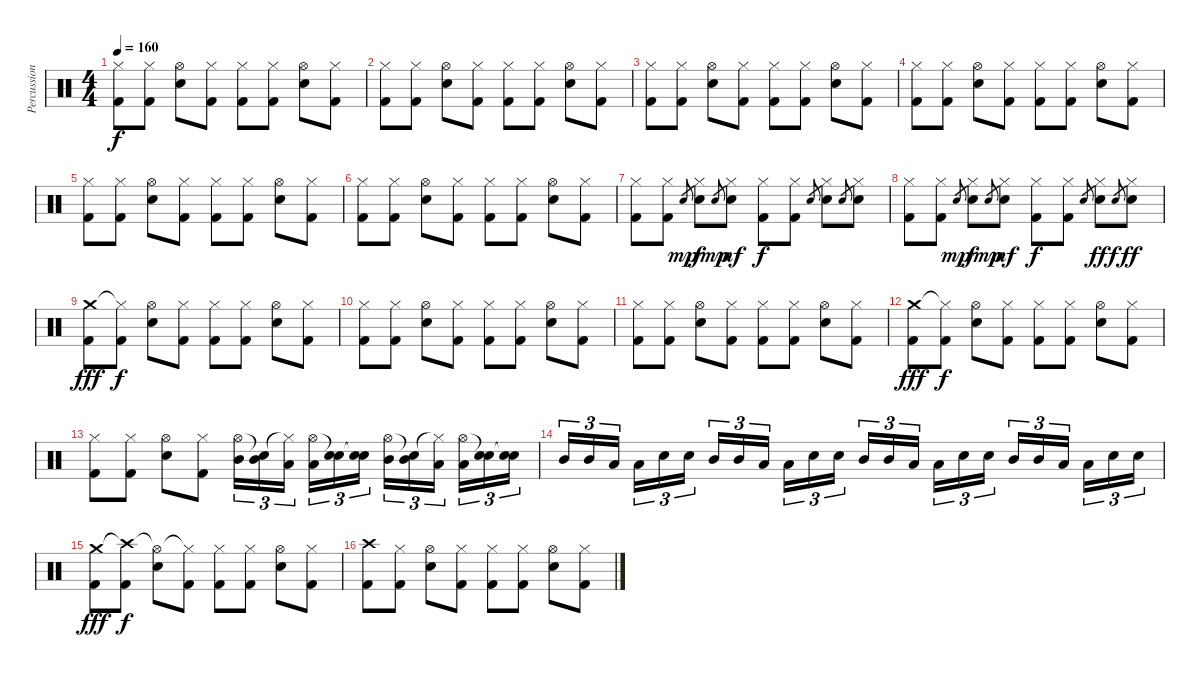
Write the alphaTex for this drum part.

\track ("Percussion" "Percussion") {instrument percussion}
\staff {score}
\articulation defaults
\ts (4 4)
\tempo 160
\clef neutral
\ks c
("Hi-Hat (closed)" "Kick (hit) 2").8{dy f} ("Hi-Hat (closed)" "Kick (hit) 2").8 ("Hi-Hat (open)" "Snare (hit) 2").8 ("Hi-Hat (closed)" "Kick (hit) 2").8 ("Hi-Hat (closed)" "Kick (hit) 2").8 ("Hi-Hat (closed)" "Kick (hit) 2").8 ("Hi-Hat (open)" "Snare (hit) 2").8 ("Hi-Hat (closed)" "Kick (hit) 2").8 |
("Hi-Hat (closed)" "Kick (hit) 2").8 ("Hi-Hat (closed)" "Kick (hit) 2").8 ("Hi-Hat (open)" "Snare (hit) 2").8 ("Hi-Hat (closed)" "Kick (hit) 2").8 ("Hi-Hat (closed)" "Kick (hit) 2").8 ("Hi-Hat (closed)" "Kick (hit) 2").8 ("Hi-Hat (open)" "Snare (hit) 2").8 ("Hi-Hat (closed)" "Kick (hit) 2").8 |
("Hi-Hat (closed)" "Kick (hit) 2").8 ("Hi-Hat (closed)" "Kick (hit) 2").8 ("Hi-Hat (open)" "Snare (hit) 2").8 ("Hi-Hat (closed)" "Kick (hit) 2").8 ("Hi-Hat (closed)" "Kick (hit) 2").8 ("Hi-Hat (closed)" "Kick (hit) 2").8 ("Hi-Hat (open)" "Snare (hit) 2").8 ("Hi-Hat (closed)" "Kick (hit) 2").8 |
("Hi-Hat (closed)" "Kick (hit) 2").8 ("Hi-Hat (closed)" "Kick (hit) 2").8 ("Hi-Hat (open)" "Snare (hit) 2").8 ("Hi-Hat (closed)" "Kick (hit) 2").8 ("Hi-Hat (closed)" "Kick (hit) 2").8 ("Hi-Hat (closed)" "Kick (hit) 2").8 ("Hi-Hat (open)" "Snare (hit) 2").8 ("Hi-Hat (closed)" "Kick (hit) 2").8 |
("Hi-Hat (closed)" "Kick (hit) 2").8 ("Hi-Hat (closed)" "Kick (hit) 2").8 ("Hi-Hat (open)" "Snare (hit) 2").8 ("Hi-Hat (closed)" "Kick (hit) 2").8 ("Hi-Hat (closed)" "Kick (hit) 2").8 ("Hi-Hat (closed)" "Kick (hit) 2").8 ("Hi-Hat (open)" "Snare (hit) 2").8 ("Hi-Hat (closed)" "Kick (hit) 2").8 |
("Hi-Hat (closed)" "Kick (hit) 2").8 ("Hi-Hat (closed)" "Kick (hit) 2").8 ("Hi-Hat (open)" "Snare (hit) 2").8 ("Hi-Hat (closed)" "Kick (hit) 2").8 ("Hi-Hat (closed)" "Kick (hit) 2").8 ("Hi-Hat (closed)" "Kick (hit) 2").8 ("Hi-Hat (open)" "Snare (hit) 2").8 ("Hi-Hat (closed)" "Kick (hit) 2").8 |
("Hi-Hat (closed)" "Kick (hit) 2").8 ("Hi-Hat (closed)" "Kick (hit) 2").8 "Snare (hit) 2".8{gr dy mp} ("Hi-Hat (closed)" "Snare (hit) 2").8{dy f} "Snare (hit) 2".8{gr dy mp} ("Hi-Hat (closed)" "Snare (hit) 2").8{dy mf} ("Hi-Hat (closed)" "Kick (hit) 2").8{dy f} ("Hi-Hat (closed)" "Kick (hit) 2").8 "Snare (hit) 2".8{gr} ("Hi-Hat (closed)" "Snare (hit) 2").8 "Snare (hit) 2".8{gr} ("Hi-Hat (closed)" "Snare (hit) 2").8 |
("Hi-Hat (closed)" "Kick (hit) 2").8 ("Hi-Hat (closed)" "Kick (hit) 2").8 "Snare (hit) 2".8{gr dy mp} ("Hi-Hat (closed)" "Snare (hit) 2").8{dy f} "Snare (hit) 2".8{gr dy mp} ("Hi-Hat (closed)" "Snare (hit) 2").8{dy mf} ("Hi-Hat (closed)" "Kick (hit) 2").8{dy f} ("Hi-Hat (closed)" "Kick (hit) 2").8 "Snare (hit) 2".8{gr} ("Hi-Hat (closed)" "Snare (hit) 2").8{dy ff} "Snare (hit) 2".8{gr dy f} ("Hi-Hat (closed)" "Snare (hit) 2").8{dy ff} |
("Crash medium (hit)" "Kick (hit) 2").8{dy fff} ("Hi-Hat (closed)"{t} "Kick (hit) 2").8{dy f} ("Hi-Hat (open)" "Snare (hit) 2").8 ("Hi-Hat (closed)" "Kick (hit) 2").8 ("Hi-Hat (closed)" "Kick (hit) 2").8 ("Hi-Hat (closed)" "Kick (hit) 2").8 ("Hi-Hat (open)" "Snare (hit) 2").8 ("Hi-Hat (closed)" "Kick (hit) 2").8 |
("Hi-Hat (closed)" "Kick (hit) 2").8 ("Hi-Hat (closed)" "Kick (hit) 2").8 ("Hi-Hat (open)" "Snare (hit) 2").8 ("Hi-Hat (closed)" "Kick (hit) 2").8 ("Hi-Hat (closed)" "Kick (hit) 2").8 ("Hi-Hat (closed)" "Kick (hit) 2").8 ("Hi-Hat (open)" "Snare (hit) 2").8 ("Hi-Hat (closed)" "Kick (hit) 2").8 |
("Hi-Hat (closed)" "Kick (hit) 2").8 ("Hi-Hat (closed)" "Kick (hit) 2").8 ("Hi-Hat (open)" "Snare (hit) 2").8 ("Hi-Hat (closed)" "Kick (hit) 2").8 ("Hi-Hat (closed)" "Kick (hit) 2").8 ("Hi-Hat (closed)" "Kick (hit) 2").8 ("Hi-Hat (open)" "Snare (hit) 2").8 ("Hi-Hat (closed)" "Kick (hit) 2").8 |
("Crash medium (hit)" "Kick (hit) 2").8{dy fff} ("Hi-Hat (closed)"{t} "Kick (hit) 2").8{dy f} ("Hi-Hat (open)" "Snare (hit) 2").8 ("Hi-Hat (closed)" "Kick (hit) 2").8 ("Hi-Hat (closed)" "Kick (hit) 2").8 ("Hi-Hat (closed)" "Kick (hit) 2").8 ("Hi-Hat (open)" "Snare (hit) 2").8 ("Hi-Hat (closed)" "Kick (hit) 2").8 |
("Hi-Hat (closed)" "Kick (hit) 2").8 ("Hi-Hat (closed)" "Kick (hit) 2").8 ("Hi-Hat (open)" "Snare (hit) 2").8 ("Hi-Hat (closed)" "Kick (hit) 2").8 ("Hi-Hat (open)" "Mid Tom (hit)").16{tu (3 2)} ("Snare (hit)"{t} "Mid Tom (hit)").16{tu (3 2)} ("Hi-Hat (closed)"{t} "Low Tom (hit)").16{tu (3 2) beam splitsecondary} ("Hi-Hat (open)" "Low Tom (hit)").16{tu (3 2)} ("Snare (hit)"{t} "Snare (hit) 2").16{tu (3 2)} ("Snare (hit)"{t} "Snare (hit) 2").16{tu (3 2)} ("Hi-Hat (open)" "Mid Tom (hit)").16{tu (3 2)} ("Snare (hit)"{t} "Mid Tom (hit)").16{tu (3 2)} ("Hi-Hat (closed)"{t} "Low Tom (hit)").16{tu (3 2) beam splitsecondary} ("Hi-Hat (open)" "Low Tom (hit)").16{tu (3 2)} ("Snare (hit)"{t} "Snare (hit) 2").16{tu (3 2)} ("Snare (hit)"{t} "Snare (hit) 2").16{tu (3 2)} |
"Mid Tom (hit)".16{tu (3 2)} "Mid Tom (hit)".16{tu (3 2)} "Low Tom (hit)".16{tu (3 2) beam splitsecondary} "Low Tom (hit)".16{tu (3 2)} "Snare (hit) 2".16{tu (3 2)} "Snare (hit) 2".16{tu (3 2)} "Mid Tom (hit)".16{tu (3 2)} "Mid Tom (hit)".16{tu (3 2)} "Low Tom (hit)".16{tu (3 2) beam splitsecondary} "Low Tom (hit)".16{tu (3 2)} "Snare (hit) 2".16{tu (3 2)} "Snare (hit) 2".16{tu (3 2)} "Mid Tom (hit)".16{tu (3 2)} "Mid Tom (hit)".16{tu (3 2)} "Low Tom (hit)".16{tu (3 2) beam splitsecondary} "Low Tom (hit)".16{tu (3 2)} "Snare (hit) 2".16{tu (3 2)} "Snare (hit) 2".16{tu (3 2)} "Mid Tom (hit)".16{tu (3 2)} "Mid Tom (hit)".16{tu (3 2)} "Low Tom (hit)".16{tu (3 2) beam splitsecondary} "Low Tom (hit)".16{tu (3 2)} "Snare (hit) 2".16{tu (3 2)} "Snare (hit) 2".16{tu (3 2)} |
("Crash medium (hit)" "Kick (hit) 2").8{dy fff} ("Crash high (hit)"{t} "Kick (hit) 2").8{dy f} ("Hi-Hat (open)"{t} "Snare (hit) 2").8 ("Hi-Hat (closed)"{t} "Kick (hit) 2").8 ("Hi-Hat (closed)" "Kick (hit) 2").8 ("Hi-Hat (closed)" "Kick (hit) 2").8 ("Hi-Hat (open)" "Snare (hit) 2").8 ("Hi-Hat (closed)" "Kick (hit) 2").8 |
("Crash high (hit)" "Kick (hit) 2").8 ("Hi-Hat (closed)" "Kick (hit) 2").8 ("Hi-Hat (open)" "Snare (hit) 2").8 ("Hi-Hat (closed)" "Kick (hit) 2").8 ("Hi-Hat (closed)" "Kick (hit) 2").8 ("Hi-Hat (closed)" "Kick (hit) 2").8 ("Hi-Hat (open)" "Snare (hit) 2").8 ("Hi-Hat (closed)" "Kick (hit) 2").8
